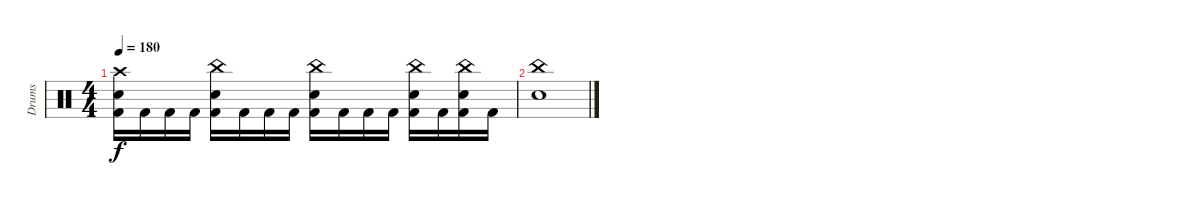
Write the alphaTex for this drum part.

\track ("Drums" "Drums") {instrument percussion}
\staff {score}
\articulation defaults
\ts (4 4)
\tempo 180
\clef neutral
\ks c
("Crash high (hit)" "Electric Snare (hit)" "Kick (hit) 2").16{dy f} "Kick (hit) 2".16 "Kick (hit) 2".16 "Kick (hit) 2".16 ("China (hit)" "Electric Snare (hit)" "Kick (hit) 2").16 "Kick (hit) 2".16 "Kick (hit) 2".16 "Kick (hit) 2".16 ("China (hit)" "Electric Snare (hit)" "Kick (hit) 2").16 "Kick (hit) 2".16 "Kick (hit) 2".16 "Kick (hit) 2".16 ("China (hit)" "Electric Snare (hit)" "Kick (hit) 2").16 "Kick (hit) 2".16 ("China (hit)" "Electric Snare (hit)" "Kick (hit) 2").16 "Kick (hit) 2".16 |
("China (hit)" "Electric Snare (hit)").1
